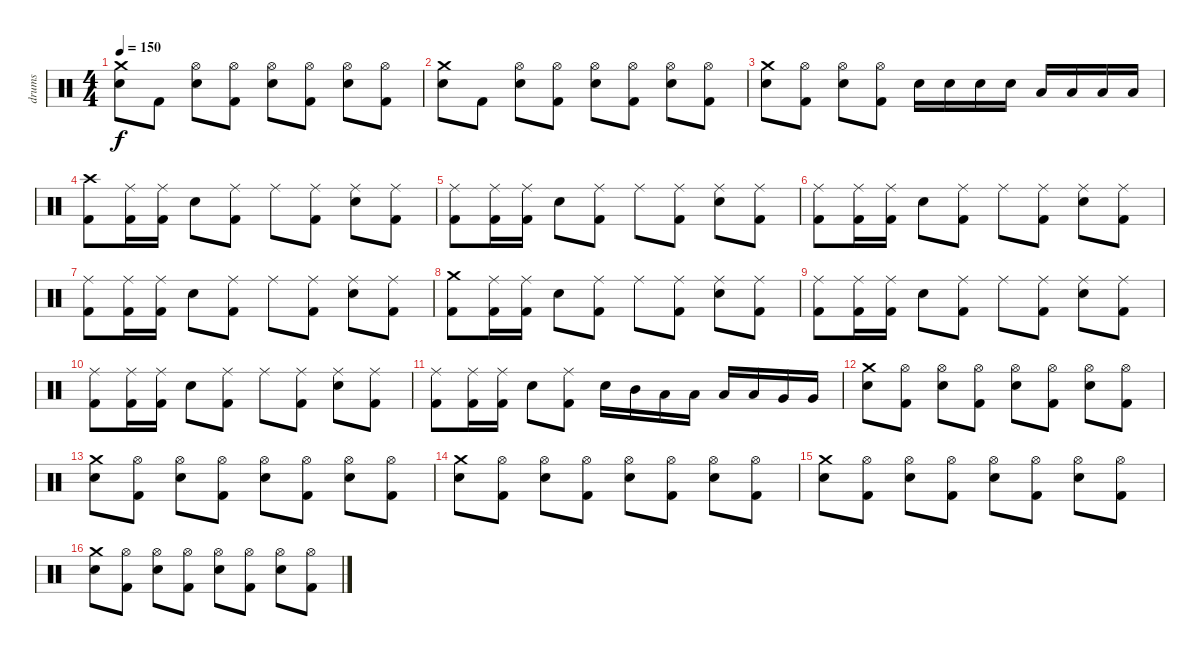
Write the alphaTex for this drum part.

\track ("drums" "drums") {instrument percussion}
\staff {score}
\articulation defaults
\ts (4 4)
\tempo 150
\clef neutral
\ks c
("Crash medium (hit)" "Electric Snare (hit)").8{dy f} "Kick (hit) 2".8 ("Hi-Hat (open)" "Electric Snare (hit)").8 ("Hi-Hat (open)" "Kick (hit) 2").8 ("Hi-Hat (open)" "Electric Snare (hit)").8 ("Hi-Hat (open)" "Kick (hit) 2").8 ("Hi-Hat (open)" "Electric Snare (hit)").8 ("Hi-Hat (open)" "Kick (hit) 2").8 |
("Crash medium (hit)" "Electric Snare (hit)").8 "Kick (hit) 2".8 ("Hi-Hat (open)" "Electric Snare (hit)").8 ("Hi-Hat (open)" "Kick (hit) 2").8 ("Hi-Hat (open)" "Electric Snare (hit)").8 ("Hi-Hat (open)" "Kick (hit) 2").8 ("Hi-Hat (open)" "Electric Snare (hit)").8 ("Hi-Hat (open)" "Kick (hit) 2").8 |
("Crash medium (hit)" "Electric Snare (hit)").8 ("Hi-Hat (open)" "Kick (hit) 2").8 ("Hi-Hat (open)" "Electric Snare (hit)").8 ("Hi-Hat (open)" "Kick (hit) 2").8 "Electric Snare (hit)".16 "Electric Snare (hit)".16 "Electric Snare (hit)".16 "Electric Snare (hit)".16 "Low Tom (hit)".16 "Low Tom (hit)".16 "Low Floor Tom (hit)".16 "Low Floor Tom (hit)".16 |
("Crash high (hit)" "Kick (hit) 2").8 ("Ride (middle)" "Kick (hit) 2").16 ("Ride (middle)" "Kick (hit) 2").16 "Electric Snare (hit)".8 ("Ride (middle)" "Kick (hit) 2").8 "Ride (middle)".8 ("Ride (middle)" "Kick (hit) 2").8 ("Ride (middle)" "Electric Snare (hit)").8 ("Ride (middle)" "Kick (hit) 2").8 |
("Ride (middle)" "Kick (hit) 2").8 ("Ride (middle)" "Kick (hit) 2").16 ("Ride (middle)" "Kick (hit) 2").16 "Electric Snare (hit)".8 ("Ride (middle)" "Kick (hit) 2").8 "Ride (middle)".8 ("Ride (middle)" "Kick (hit) 2").8 ("Ride (middle)" "Electric Snare (hit)").8 ("Ride (middle)" "Kick (hit) 2").8 |
("Ride (middle)" "Kick (hit) 2").8 ("Ride (middle)" "Kick (hit) 2").16 ("Ride (middle)" "Kick (hit) 2").16 "Electric Snare (hit)".8 ("Ride (middle)" "Kick (hit) 2").8 "Ride (middle)".8 ("Ride (middle)" "Kick (hit) 2").8 ("Ride (middle)" "Electric Snare (hit)").8 ("Ride (middle)" "Kick (hit) 2").8 |
("Ride (middle)" "Kick (hit) 2").8 ("Ride (middle)" "Kick (hit) 2").16 ("Ride (middle)" "Kick (hit) 2").16 "Electric Snare (hit)".8 ("Ride (middle)" "Kick (hit) 2").8 "Ride (middle)".8 ("Ride (middle)" "Kick (hit) 2").8 ("Ride (middle)" "Electric Snare (hit)").8 ("Ride (middle)" "Kick (hit) 2").8 |
("Crash medium (hit)" "Kick (hit) 2").8 ("Ride (middle)" "Kick (hit) 2").16 ("Ride (middle)" "Kick (hit) 2").16 "Electric Snare (hit)".8 ("Ride (middle)" "Kick (hit) 2").8 "Ride (middle)".8 ("Ride (middle)" "Kick (hit) 2").8 ("Ride (middle)" "Electric Snare (hit)").8 ("Ride (middle)" "Kick (hit) 2").8 |
("Ride (middle)" "Kick (hit) 2").8 ("Ride (middle)" "Kick (hit) 2").16 ("Ride (middle)" "Kick (hit) 2").16 "Electric Snare (hit)".8 ("Ride (middle)" "Kick (hit) 2").8 "Ride (middle)".8 ("Ride (middle)" "Kick (hit) 2").8 ("Ride (middle)" "Electric Snare (hit)").8 ("Ride (middle)" "Kick (hit) 2").8 |
("Ride (middle)" "Kick (hit) 2").8 ("Ride (middle)" "Kick (hit) 2").16 ("Ride (middle)" "Kick (hit) 2").16 "Electric Snare (hit)".8 ("Ride (middle)" "Kick (hit) 2").8 "Ride (middle)".8 ("Ride (middle)" "Kick (hit) 2").8 ("Ride (middle)" "Electric Snare (hit)").8 ("Ride (middle)" "Kick (hit) 2").8 |
("Ride (middle)" "Kick (hit) 2").8 ("Ride (middle)" "Kick (hit) 2").16 ("Ride (middle)" "Kick (hit) 2").16 "Electric Snare (hit)".8 ("Ride (middle)" "Kick (hit) 2").8 "Electric Snare (hit)".16 "Mid Tom (hit)".16 "Low Tom (hit)".16 "Low Tom (hit)".16 "Low Tom (hit)".16 "Low Tom (hit)".16 "Very Low Tom (hit)".16 "Very Low Tom (hit)".16 |
("Crash medium (hit)" "Electric Snare (hit)").8 ("Hi-Hat (open)" "Kick (hit) 2").8 ("Hi-Hat (open)" "Electric Snare (hit)").8 ("Hi-Hat (open)" "Kick (hit) 2").8 ("Hi-Hat (open)" "Electric Snare (hit)").8 ("Hi-Hat (open)" "Kick (hit) 2").8 ("Hi-Hat (open)" "Electric Snare (hit)").8 ("Hi-Hat (open)" "Kick (hit) 2").8 |
("Crash medium (hit)" "Electric Snare (hit)").8 ("Hi-Hat (open)" "Kick (hit) 2").8 ("Hi-Hat (open)" "Electric Snare (hit)").8 ("Hi-Hat (open)" "Kick (hit) 2").8 ("Hi-Hat (open)" "Electric Snare (hit)").8 ("Hi-Hat (open)" "Kick (hit) 2").8 ("Hi-Hat (open)" "Electric Snare (hit)").8 ("Hi-Hat (open)" "Kick (hit) 2").8 |
("Crash medium (hit)" "Electric Snare (hit)").8 ("Hi-Hat (open)" "Kick (hit) 2").8 ("Hi-Hat (open)" "Electric Snare (hit)").8 ("Hi-Hat (open)" "Kick (hit) 2").8 ("Hi-Hat (open)" "Electric Snare (hit)").8 ("Hi-Hat (open)" "Kick (hit) 2").8 ("Hi-Hat (open)" "Electric Snare (hit)").8 ("Hi-Hat (open)" "Kick (hit) 2").8 |
("Crash medium (hit)" "Electric Snare (hit)").8 ("Hi-Hat (open)" "Kick (hit) 2").8 ("Hi-Hat (open)" "Electric Snare (hit)").8 ("Hi-Hat (open)" "Kick (hit) 2").8 ("Hi-Hat (open)" "Electric Snare (hit)").8 ("Hi-Hat (open)" "Kick (hit) 2").8 ("Hi-Hat (open)" "Electric Snare (hit)").8 ("Hi-Hat (open)" "Kick (hit) 2").8 |
("Crash medium (hit)" "Electric Snare (hit)").8 ("Hi-Hat (open)" "Kick (hit) 2").8 ("Hi-Hat (open)" "Electric Snare (hit)").8 ("Hi-Hat (open)" "Kick (hit) 2").8 ("Hi-Hat (open)" "Electric Snare (hit)").8 ("Hi-Hat (open)" "Kick (hit) 2").8 ("Hi-Hat (open)" "Electric Snare (hit)").8 ("Hi-Hat (open)" "Kick (hit) 2").8
